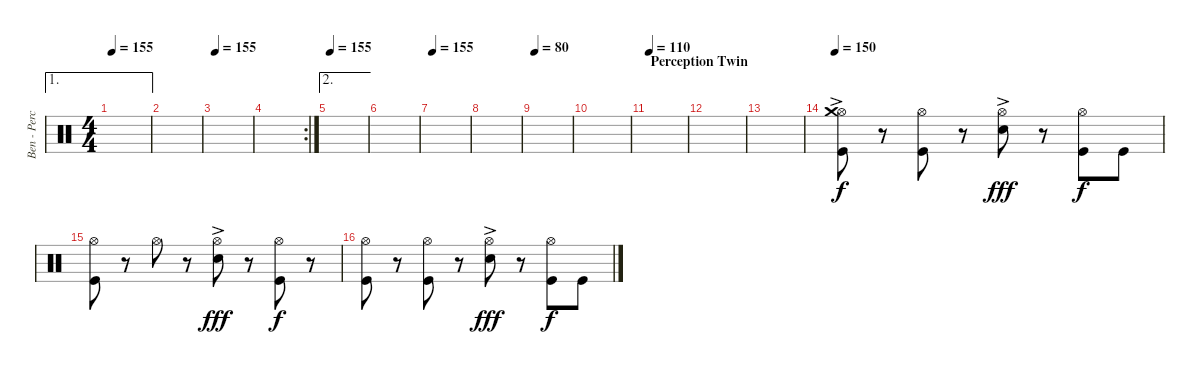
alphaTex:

\track ("Ben - Perception Twin - Drums" "Ben - Perc") {instrument percussion}
\staff {score}
\articulation defaults
\ae 1
\ts (4 4)
\tempo 155
\clef neutral
\ks c
|
|
\tempo 155
|
\rc 2
|
\ae 2
\tempo 155
|
|
\tempo 155
|
|
\tempo 80
|
|
\section ("" "Perception Twin")
\tempo 110
|
|
|
\tempo 150
("Hi-Hat (open)" "Crash medium (hit)"{ac} "Kick (hit)").8 r.8 ("Hi-Hat (open)" "Kick (hit)").8{dy f} r.8 ("Hi-Hat (open)" "Electric Snare (hit)"{ac}).8{dy fff} r.8 ("Hi-Hat (open)" "Kick (hit)").8{dy f} "Kick (hit)".8 |
("Hi-Hat (open)" "Kick (hit)").8 r.8 "Hi-Hat (open)".8 r.8 ("Hi-Hat (open)" "Electric Snare (hit)"{ac}).8{dy fff} r.8 ("Hi-Hat (open)" "Kick (hit)").8{dy f} r.8 |
("Hi-Hat (open)" "Kick (hit)").8 r.8 ("Hi-Hat (open)" "Kick (hit)").8 r.8 ("Hi-Hat (open)" "Electric Snare (hit)"{ac}).8{dy fff} r.8 ("Hi-Hat (open)" "Kick (hit)").8{dy f} "Kick (hit)".8
